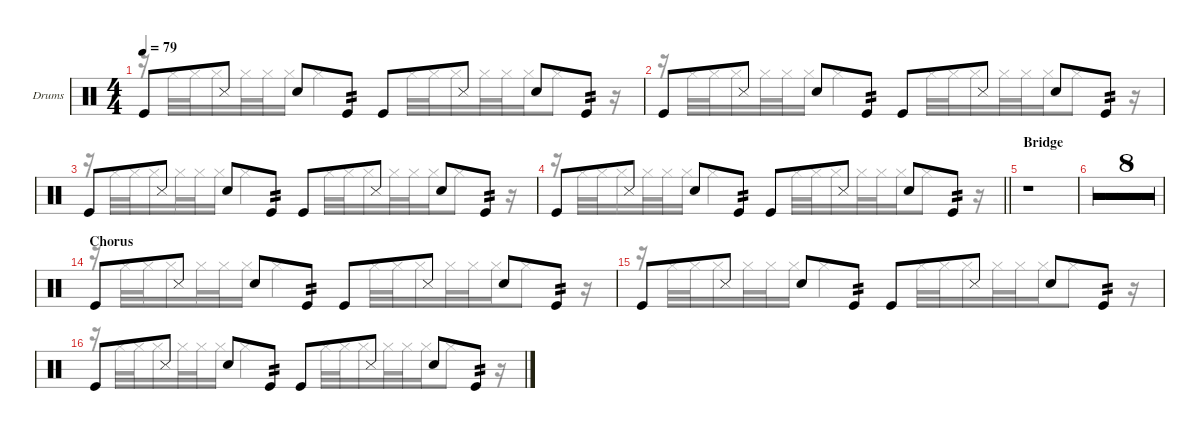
\defaultSystemsLayout 4
\hideDynamics
\bracketExtendMode groupsimilarinstruments
\firstSystemTrackNameOrientation horizontal
\otherSystemsTrackNameOrientation horizontal
\track ("Drumkit" "Drums") {multiBarRest instrument percussion}
\staff {score}
\articulation defaults
\voice
\ts (4 4)
\tempo 79
\clef neutral
\ks c "Kick (hit)".8{dy mf} "Snare (side stick) 3".8 "Snare (hit) 2".8 "Kick (hit)".8{tp 2} "Kick (hit)".8 "Snare (side stick) 3".8 "Snare (hit) 2".8 "Kick (hit)".8{tp 2}
|
"Kick (hit)".8 "Snare (side stick) 3".8 "Snare (hit) 2".8 "Kick (hit)".8{tp 2} "Kick (hit)".8 "Snare (side stick) 3".8 "Snare (hit) 2".8 "Kick (hit)".8{tp 2} |
"Kick (hit)".8 "Snare (side stick) 3".8 "Snare (hit) 2".8 "Kick (hit)".8{tp 2} "Kick (hit)".8 "Snare (side stick) 3".8 "Snare (hit) 2".8 "Kick (hit)".8{tp 2} |
\barLineRight lightlight "Kick (hit)".8 "Snare (side stick) 3".8 "Snare (hit) 2".8 "Kick (hit)".8{tp 2} "Kick (hit)".8 "Snare (side stick) 3".8 "Snare (hit) 2".8 "Kick (hit)".8{tp 2}
|
\section ("" "Bridge")
r.1 |
r.1 |
r.1 |
r.1 |
r.1 |
r.1 |
r.1 |
\barLineRight lightlight
r.1 |
r.1 |
\section ("" "Chorus")
"Kick (hit)".8 "Snare (side stick) 3".8 "Snare (hit) 2".8 "Kick (hit)".8{tp 2} "Kick (hit)".8 "Snare (side stick) 3".8 "Snare (hit) 2".8 "Kick (hit)".8{tp 2} |
"Kick (hit)".8 "Snare (side stick) 3".8 "Snare (hit) 2".8 "Kick (hit)".8{tp 2} "Kick (hit)".8 "Snare (side stick) 3".8 "Snare (hit) 2".8 "Kick (hit)".8{tp 2} |
"Kick (hit)".8 "Snare (side stick) 3".8 "Snare (hit) 2".8 "Kick (hit)".8{tp 2} "Kick (hit)".8 "Snare (side stick) 3".8 "Snare (hit) 2".8 "Kick (hit)".8{tp 2}
\voice
\clef neutral
\ottava regular
\simile none
\ks c
r.16{dy mp} "Hi-Hat (closed)".32 "Hi-Hat (closed)".32 "Hi-Hat (closed)".16 "Hi-Hat (closed)".32 "Hi-Hat (closed)".32{beam merge} "Hi-Hat (closed)".16 "Hi-Hat (closed)".4 "Hi-Hat (closed)".32 "Hi-Hat (closed)".32 "Hi-Hat (closed)".16 "Hi-Hat (closed)".32 "Hi-Hat (closed)".32{beam merge} "Hi-Hat (closed)".16 "Hi-Hat (closed)".8 r.16 |
r.16 "Hi-Hat (closed)".32 "Hi-Hat (closed)".32 "Hi-Hat (closed)".16 "Hi-Hat (closed)".32 "Hi-Hat (closed)".32{beam merge} "Hi-Hat (closed)".16 "Hi-Hat (closed)".4 "Hi-Hat (closed)".32 "Hi-Hat (closed)".32 "Hi-Hat (closed)".16 "Hi-Hat (closed)".32 "Hi-Hat (closed)".32{beam merge} "Hi-Hat (closed)".16 "Hi-Hat (closed)".8 r.16 |
r.16 "Hi-Hat (closed)".32 "Hi-Hat (closed)".32 "Hi-Hat (closed)".16 "Hi-Hat (closed)".32 "Hi-Hat (closed)".32{beam merge} "Hi-Hat (closed)".16 "Hi-Hat (closed)".4 "Hi-Hat (closed)".32 "Hi-Hat (closed)".32 "Hi-Hat (closed)".16 "Hi-Hat (closed)".32 "Hi-Hat (closed)".32{beam merge} "Hi-Hat (closed)".16 "Hi-Hat (closed)".8 r.16 |
\barLineRight lightlight
r.16 "Hi-Hat (closed)".32 "Hi-Hat (closed)".32 "Hi-Hat (closed)".16 "Hi-Hat (closed)".32 "Hi-Hat (closed)".32{beam merge} "Hi-Hat (closed)".16 "Hi-Hat (closed)".4 "Hi-Hat (closed)".32 "Hi-Hat (closed)".32 "Hi-Hat (closed)".16 "Hi-Hat (closed)".32 "Hi-Hat (closed)".32{beam merge} "Hi-Hat (closed)".16 "Hi-Hat (closed)".8 r.16 |
|
|
|
|
|
|
|
\barLineRight lightlight
|
|
r.16 "Hi-Hat (closed)".32 "Hi-Hat (closed)".32 "Hi-Hat (closed)".16 "Hi-Hat (closed)".32 "Hi-Hat (closed)".32{beam merge} "Hi-Hat (closed)".16 "Hi-Hat (closed)".4 "Hi-Hat (closed)".32 "Hi-Hat (closed)".32 "Hi-Hat (closed)".16 "Hi-Hat (closed)".32 "Hi-Hat (closed)".32{beam merge} "Hi-Hat (closed)".16 "Hi-Hat (closed)".8 r.16 |
r.16 "Hi-Hat (closed)".32 "Hi-Hat (closed)".32 "Hi-Hat (closed)".16 "Hi-Hat (closed)".32 "Hi-Hat (closed)".32{beam merge} "Hi-Hat (closed)".16 "Hi-Hat (closed)".4 "Hi-Hat (closed)".32 "Hi-Hat (closed)".32 "Hi-Hat (closed)".16 "Hi-Hat (closed)".32 "Hi-Hat (closed)".32{beam merge} "Hi-Hat (closed)".16 "Hi-Hat (closed)".8 r.16 |
r.16 "Hi-Hat (closed)".32 "Hi-Hat (closed)".32 "Hi-Hat (closed)".16 "Hi-Hat (closed)".32 "Hi-Hat (closed)".32{beam merge} "Hi-Hat (closed)".16 "Hi-Hat (closed)".4 "Hi-Hat (closed)".32 "Hi-Hat (closed)".32 "Hi-Hat (closed)".16 "Hi-Hat (closed)".32 "Hi-Hat (closed)".32{beam merge} "Hi-Hat (closed)".16 "Hi-Hat (closed)".8 r.16
